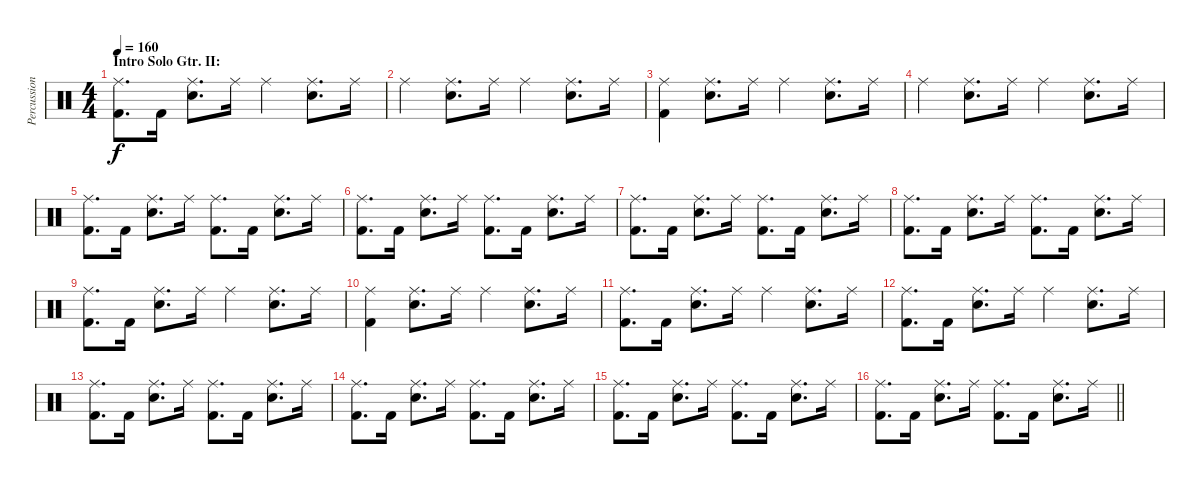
\track ("Percussion" "Percussion") {instrument percussion}
\staff {score}
\articulation defaults
\ts (4 4)
\section ("" "Intro Solo Gtr. II:")
\tempo 160
\clef neutral
\ks c
("Ride (middle)" "Kick (hit) 2").8{d dy f} "Kick (hit) 2".16 ("Ride (middle)" "Snare (hit) 2").8{d} "Ride (middle)".16 "Ride (middle)".4 ("Ride (middle)" "Snare (hit) 2").8{d} "Ride (middle)".16 |
"Ride (middle)".4 ("Ride (middle)" "Snare (hit) 2").8{d} "Ride (middle)".16 "Ride (middle)".4 ("Ride (middle)" "Snare (hit) 2").8{d} "Ride (middle)".16 |
("Ride (middle)" "Kick (hit) 2").4 ("Ride (middle)" "Snare (hit) 2").8{d} "Ride (middle)".16 "Ride (middle)".4 ("Ride (middle)" "Snare (hit) 2").8{d} "Ride (middle)".16 |
"Ride (middle)".4 ("Ride (middle)" "Snare (hit) 2").8{d} "Ride (middle)".16 "Ride (middle)".4 ("Ride (middle)" "Snare (hit) 2").8{d} "Ride (middle)".16 |
("Ride (middle)" "Kick (hit) 2").8{d} "Kick (hit) 2".16 ("Ride (middle)" "Snare (hit) 2").8{d} "Ride (middle)".16 ("Ride (middle)" "Kick (hit) 2").8{d} "Kick (hit) 2".16 ("Ride (middle)" "Snare (hit) 2").8{d} "Ride (middle)".16 |
("Ride (middle)" "Kick (hit) 2").8{d} "Kick (hit) 2".16 ("Ride (middle)" "Snare (hit) 2").8{d} "Ride (middle)".16 ("Ride (middle)" "Kick (hit) 2").8{d} "Kick (hit) 2".16 ("Ride (middle)" "Snare (hit) 2").8{d} "Ride (middle)".16 |
("Ride (middle)" "Kick (hit) 2").8{d} "Kick (hit) 2".16 ("Ride (middle)" "Snare (hit) 2").8{d} "Ride (middle)".16 ("Ride (middle)" "Kick (hit) 2").8{d} "Kick (hit) 2".16 ("Ride (middle)" "Snare (hit) 2").8{d} "Ride (middle)".16 |
("Ride (middle)" "Kick (hit) 2").8{d} "Kick (hit) 2".16 ("Ride (middle)" "Snare (hit) 2").8{d} "Ride (middle)".16 ("Ride (middle)" "Kick (hit) 2").8{d} "Kick (hit) 2".16 ("Ride (middle)" "Snare (hit) 2").8{d} "Ride (middle)".16 |
("Ride (middle)" "Kick (hit) 2").8{d} "Kick (hit) 2".16 ("Ride (middle)" "Snare (hit) 2").8{d} "Ride (middle)".16 "Ride (middle)".4 ("Ride (middle)" "Snare (hit) 2").8{d} "Ride (middle)".16 |
("Ride (middle)" "Kick (hit) 2").4 ("Ride (middle)" "Snare (hit) 2").8{d} "Ride (middle)".16 "Ride (middle)".4 ("Ride (middle)" "Snare (hit) 2").8{d} "Ride (middle)".16 |
("Ride (middle)" "Kick (hit) 2").8{d} "Kick (hit) 2".16 ("Ride (middle)" "Snare (hit) 2").8{d} "Ride (middle)".16 "Ride (middle)".4 ("Ride (middle)" "Snare (hit) 2").8{d} "Ride (middle)".16 |
("Ride (middle)" "Kick (hit) 2").8{d} "Kick (hit) 2".16 ("Ride (middle)" "Snare (hit) 2").8{d} "Ride (middle)".16 "Ride (middle)".4 ("Ride (middle)" "Snare (hit) 2").8{d} "Ride (middle)".16 |
("Ride (middle)" "Kick (hit) 2").8{d} "Kick (hit) 2".16 ("Ride (middle)" "Snare (hit) 2").8{d} "Ride (middle)".16 ("Ride (middle)" "Kick (hit) 2").8{d} "Kick (hit) 2".16 ("Ride (middle)" "Snare (hit) 2").8{d} "Ride (middle)".16 |
("Ride (middle)" "Kick (hit) 2").8{d} "Kick (hit) 2".16 ("Ride (middle)" "Snare (hit) 2").8{d} "Ride (middle)".16 ("Ride (middle)" "Kick (hit) 2").8{d} "Kick (hit) 2".16 ("Ride (middle)" "Snare (hit) 2").8{d} "Ride (middle)".16 |
("Ride (middle)" "Kick (hit) 2").8{d} "Kick (hit) 2".16 ("Ride (middle)" "Snare (hit) 2").8{d} "Ride (middle)".16 ("Ride (middle)" "Kick (hit) 2").8{d} "Kick (hit) 2".16 ("Ride (middle)" "Snare (hit) 2").8{d} "Ride (middle)".16 |
\barLineRight lightlight
("Ride (middle)" "Kick (hit) 2").8{d} "Kick (hit) 2".16 ("Ride (middle)" "Snare (hit) 2").8{d} "Ride (middle)".16 ("Ride (middle)" "Kick (hit) 2").8{d} "Kick (hit) 2".16 ("Ride (middle)" "Snare (hit) 2").8{d} "Ride (middle)".16
